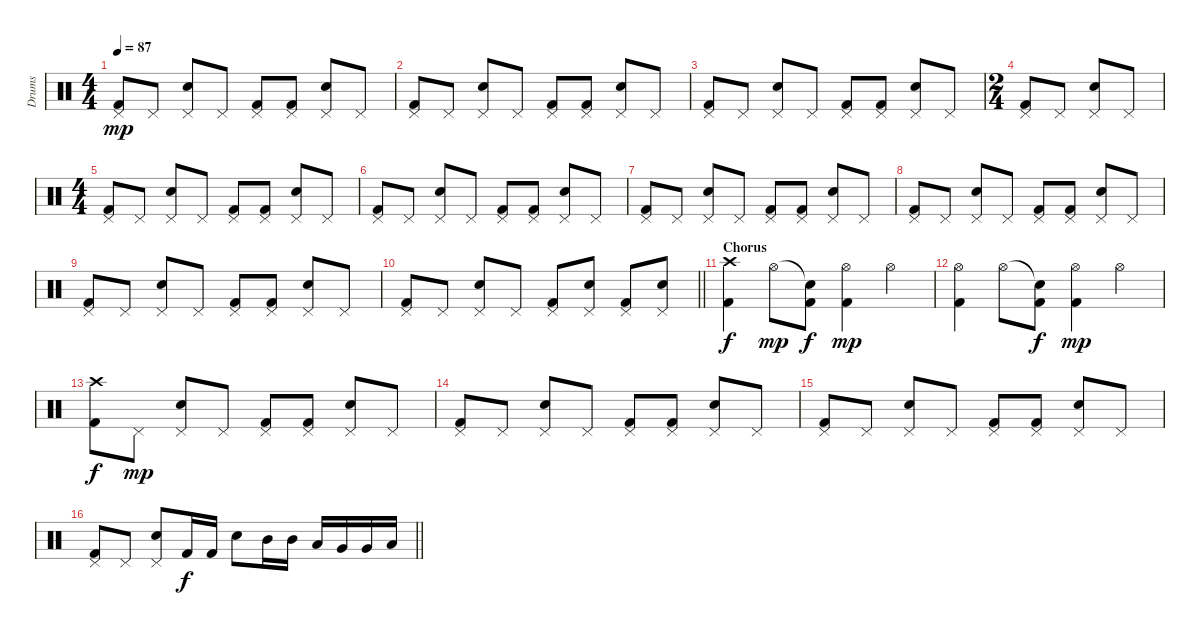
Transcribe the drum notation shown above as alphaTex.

\track ("Drums" "Drums") {instrument percussion}
\staff {score}
\articulation defaults
\ts (4 4)
\tempo 87
\clef neutral
\ks c
("Pedal Hi-Hat (hit)" "Kick (hit) 2").8{dy mp} "Pedal Hi-Hat (hit)".8 ("Pedal Hi-Hat (hit)" "Snare (hit) 2").8 "Pedal Hi-Hat (hit)".8 ("Pedal Hi-Hat (hit)" "Kick (hit) 2").8 ("Pedal Hi-Hat (hit)" "Kick (hit) 2").8 ("Pedal Hi-Hat (hit)" "Snare (hit) 2").8 "Pedal Hi-Hat (hit)".8 |
("Pedal Hi-Hat (hit)" "Kick (hit) 2").8 "Pedal Hi-Hat (hit)".8 ("Pedal Hi-Hat (hit)" "Snare (hit) 2").8 "Pedal Hi-Hat (hit)".8 ("Pedal Hi-Hat (hit)" "Kick (hit) 2").8 ("Pedal Hi-Hat (hit)" "Kick (hit) 2").8 ("Pedal Hi-Hat (hit)" "Snare (hit) 2").8 "Pedal Hi-Hat (hit)".8 |
("Pedal Hi-Hat (hit)" "Kick (hit) 2").8 "Pedal Hi-Hat (hit)".8 ("Pedal Hi-Hat (hit)" "Snare (hit) 2").8 "Pedal Hi-Hat (hit)".8 ("Pedal Hi-Hat (hit)" "Kick (hit) 2").8 ("Pedal Hi-Hat (hit)" "Kick (hit) 2").8 ("Pedal Hi-Hat (hit)" "Snare (hit) 2").8 "Pedal Hi-Hat (hit)".8 |
\ts (2 4)
("Pedal Hi-Hat (hit)" "Kick (hit) 2").8 "Pedal Hi-Hat (hit)".8 ("Pedal Hi-Hat (hit)" "Snare (hit) 2").8 "Pedal Hi-Hat (hit)".8 |
\ts (4 4)
("Pedal Hi-Hat (hit)" "Kick (hit) 2").8 "Pedal Hi-Hat (hit)".8 ("Pedal Hi-Hat (hit)" "Snare (hit) 2").8 "Pedal Hi-Hat (hit)".8 ("Pedal Hi-Hat (hit)" "Kick (hit) 2").8 ("Pedal Hi-Hat (hit)" "Kick (hit) 2").8 ("Pedal Hi-Hat (hit)" "Snare (hit) 2").8 "Pedal Hi-Hat (hit)".8 |
("Pedal Hi-Hat (hit)" "Kick (hit) 2").8 "Pedal Hi-Hat (hit)".8 ("Pedal Hi-Hat (hit)" "Snare (hit) 2").8 "Pedal Hi-Hat (hit)".8 ("Pedal Hi-Hat (hit)" "Kick (hit) 2").8 ("Pedal Hi-Hat (hit)" "Kick (hit) 2").8 ("Pedal Hi-Hat (hit)" "Snare (hit) 2").8 "Pedal Hi-Hat (hit)".8 |
("Pedal Hi-Hat (hit)" "Kick (hit) 2").8 "Pedal Hi-Hat (hit)".8 ("Pedal Hi-Hat (hit)" "Snare (hit) 2").8 "Pedal Hi-Hat (hit)".8 ("Pedal Hi-Hat (hit)" "Kick (hit) 2").8 ("Pedal Hi-Hat (hit)" "Kick (hit) 2").8 ("Pedal Hi-Hat (hit)" "Snare (hit) 2").8 "Pedal Hi-Hat (hit)".8 |
("Pedal Hi-Hat (hit)" "Kick (hit) 2").8 "Pedal Hi-Hat (hit)".8 ("Pedal Hi-Hat (hit)" "Snare (hit) 2").8 "Pedal Hi-Hat (hit)".8 ("Pedal Hi-Hat (hit)" "Kick (hit) 2").8 ("Pedal Hi-Hat (hit)" "Kick (hit) 2").8 ("Pedal Hi-Hat (hit)" "Snare (hit) 2").8 "Pedal Hi-Hat (hit)".8 |
("Pedal Hi-Hat (hit)" "Kick (hit) 2").8 "Pedal Hi-Hat (hit)".8 ("Pedal Hi-Hat (hit)" "Snare (hit) 2").8 "Pedal Hi-Hat (hit)".8 ("Pedal Hi-Hat (hit)" "Kick (hit) 2").8 ("Pedal Hi-Hat (hit)" "Kick (hit) 2").8 ("Pedal Hi-Hat (hit)" "Snare (hit) 2").8 "Pedal Hi-Hat (hit)".8 |
\barLineRight lightlight
("Pedal Hi-Hat (hit)" "Kick (hit) 2").8 "Pedal Hi-Hat (hit)".8 ("Pedal Hi-Hat (hit)" "Snare (hit) 2").8 "Pedal Hi-Hat (hit)".8 ("Pedal Hi-Hat (hit)" "Kick (hit) 2").8 ("Pedal Hi-Hat (hit)" "Snare (hit) 2").8 ("Pedal Hi-Hat (hit)" "Kick (hit) 2").8 ("Pedal Hi-Hat (hit)" "Snare (hit) 2").8 |
\section ("" "Chorus")
("Crash high (hit)" "Kick (hit) 2").4{dy f} "Hi-Hat (open)".8{dy mp} ("Snare (hit)"{t} "Kick (hit) 2").8{dy f} ("Hi-Hat (open)" "Kick (hit) 2").4{dy mp} "Hi-Hat (open)".4 |
("Hi-Hat (open)" "Kick (hit) 2").4 "Hi-Hat (open)".8 ("Snare (hit)"{t} "Kick (hit) 2").8{dy f} ("Hi-Hat (open)" "Kick (hit) 2").4{dy mp} "Hi-Hat (open)".4 |
("Crash high (hit)" "Kick (hit) 2").8{dy f} "Pedal Hi-Hat (hit)".8{dy mp} ("Pedal Hi-Hat (hit)" "Snare (hit) 2").8 "Pedal Hi-Hat (hit)".8 ("Pedal Hi-Hat (hit)" "Kick (hit) 2").8 ("Pedal Hi-Hat (hit)" "Kick (hit) 2").8 ("Pedal Hi-Hat (hit)" "Snare (hit) 2").8 "Pedal Hi-Hat (hit)".8 |
("Pedal Hi-Hat (hit)" "Kick (hit) 2").8 "Pedal Hi-Hat (hit)".8 ("Pedal Hi-Hat (hit)" "Snare (hit) 2").8 "Pedal Hi-Hat (hit)".8 ("Pedal Hi-Hat (hit)" "Kick (hit) 2").8 ("Pedal Hi-Hat (hit)" "Kick (hit) 2").8 ("Pedal Hi-Hat (hit)" "Snare (hit) 2").8 "Pedal Hi-Hat (hit)".8 |
("Pedal Hi-Hat (hit)" "Kick (hit) 2").8 "Pedal Hi-Hat (hit)".8 ("Pedal Hi-Hat (hit)" "Snare (hit) 2").8 "Pedal Hi-Hat (hit)".8 ("Pedal Hi-Hat (hit)" "Kick (hit) 2").8 ("Pedal Hi-Hat (hit)" "Kick (hit) 2").8 ("Pedal Hi-Hat (hit)" "Snare (hit) 2").8 "Pedal Hi-Hat (hit)".8 |
\barLineRight lightlight
("Pedal Hi-Hat (hit)" "Kick (hit) 2").8 "Pedal Hi-Hat (hit)".8 ("Pedal Hi-Hat (hit)" "Snare (hit) 2").8 "Kick (hit) 2".16{dy f} "Kick (hit) 2".16 "Snare (hit) 2".8 "Mid Tom (hit)".16 "Mid Tom (hit)".16 "Low Tom (hit)".16 "Very Low Tom (hit)".16 "Very Low Tom (hit)".16 "Low Floor Tom (hit)".16
